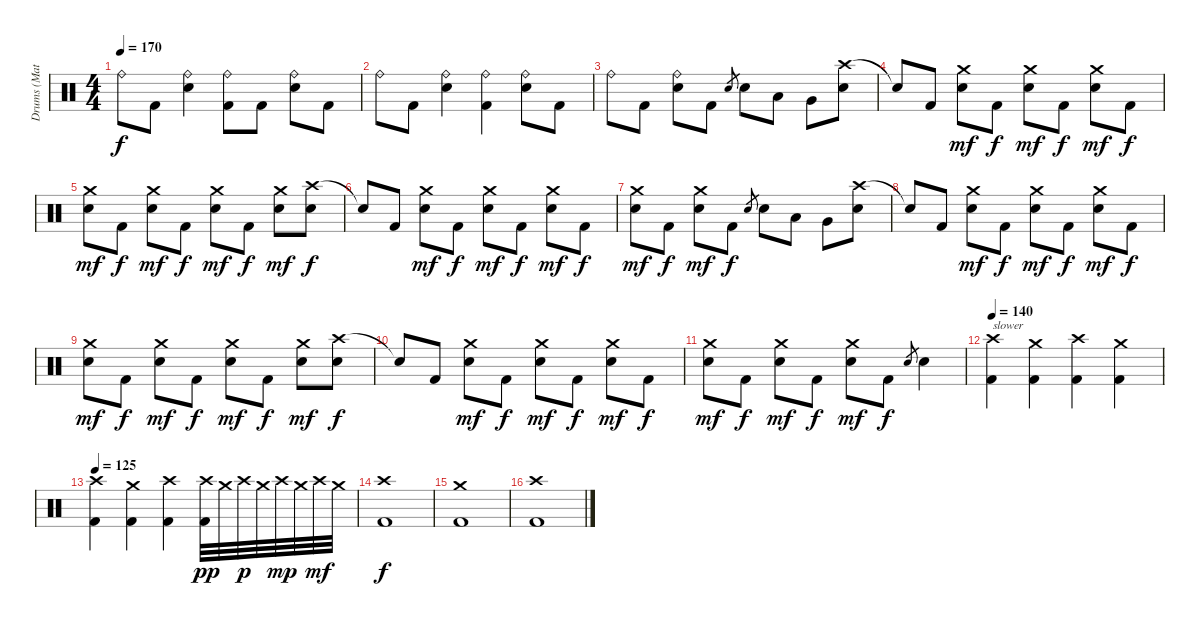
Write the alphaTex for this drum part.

\track ("Drums (Matt)" "Drums (Mat") {instrument percussion}
\staff {score}
\articulation defaults
\ts (4 4)
\tempo 170
\clef neutral
\ks c "Ride (bell)".8{dy f} "Kick (hit) 2".8
("Ride (bell)" "Snare (hit) 2").4 ("Ride (bell)" "Kick (hit) 2").8 "Kick (hit) 2".8 ("Ride (bell)" "Snare (hit) 2").8 "Kick (hit) 2".8 |
"Ride (bell)".8 "Kick (hit) 2".8 ("Ride (bell)" "Snare (hit) 2").4 ("Ride (bell)" "Kick (hit) 2").4 ("Ride (bell)" "Snare (hit) 2").8 "Kick (hit) 2".8 |
"Ride (bell)".8 "Kick (hit) 2".8 ("Ride (bell)" "Snare (hit) 2").8 "Kick (hit) 2".8 "Snare (hit) 2".8{gr} "Snare (hit) 2".8 "Low Tom (hit)".8 "Very Low Tom (hit)".8 ("Crash high (hit)" "Snare (hit) 2").8 |
"Snare (hit)"{t}.8 "Kick (hit) 2".8 ("Crash medium (hit)" "Snare (hit) 2").8{dy mf} "Kick (hit) 2".8{dy f} ("Crash medium (hit)" "Snare (hit) 2").8{dy mf} "Kick (hit) 2".8{dy f} ("Crash medium (hit)" "Snare (hit) 2").8{dy mf} "Kick (hit) 2".8{dy f} |
("Crash medium (hit)" "Snare (hit) 2").8{dy mf} "Kick (hit) 2".8{dy f} ("Crash medium (hit)" "Snare (hit) 2").8{dy mf} "Kick (hit) 2".8{dy f} ("Crash medium (hit)" "Snare (hit) 2").8{dy mf} "Kick (hit) 2".8{dy f} ("Crash medium (hit)" "Snare (hit) 2").8{dy mf} ("Crash high (hit)" "Snare (hit) 2").8{dy f} |
"Snare (hit)"{t}.8 "Kick (hit) 2".8 ("Crash medium (hit)" "Snare (hit) 2").8{dy mf} "Kick (hit) 2".8{dy f} ("Crash medium (hit)" "Snare (hit) 2").8{dy mf} "Kick (hit) 2".8{dy f} ("Crash medium (hit)" "Snare (hit) 2").8{dy mf} "Kick (hit) 2".8{dy f} |
("Crash medium (hit)" "Snare (hit) 2").8{dy mf} "Kick (hit) 2".8{dy f} ("Crash medium (hit)" "Snare (hit) 2").8{dy mf} "Kick (hit) 2".8{dy f} "Snare (hit) 2".8{gr} "Snare (hit) 2".8 "Low Tom (hit)".8 "Very Low Tom (hit)".8 ("Crash high (hit)" "Snare (hit) 2").8 |
"Snare (hit)"{t}.8 "Kick (hit) 2".8 ("Crash medium (hit)" "Snare (hit) 2").8{dy mf} "Kick (hit) 2".8{dy f} ("Crash medium (hit)" "Snare (hit) 2").8{dy mf} "Kick (hit) 2".8{dy f} ("Crash medium (hit)" "Snare (hit) 2").8{dy mf} "Kick (hit) 2".8{dy f} |
("Crash medium (hit)" "Snare (hit) 2").8{dy mf} "Kick (hit) 2".8{dy f} ("Crash medium (hit)" "Snare (hit) 2").8{dy mf} "Kick (hit) 2".8{dy f} ("Crash medium (hit)" "Snare (hit) 2").8{dy mf} "Kick (hit) 2".8{dy f} ("Crash medium (hit)" "Snare (hit) 2").8{dy mf} ("Crash high (hit)" "Snare (hit) 2").8{dy f} |
"Snare (hit)"{t}.8 "Kick (hit) 2".8 ("Crash medium (hit)" "Snare (hit) 2").8{dy mf} "Kick (hit) 2".8{dy f} ("Crash medium (hit)" "Snare (hit) 2").8{dy mf} "Kick (hit) 2".8{dy f} ("Crash medium (hit)" "Snare (hit) 2").8{dy mf} "Kick (hit) 2".8{dy f} |
("Crash medium (hit)" "Snare (hit) 2").8{dy mf} "Kick (hit) 2".8{dy f} ("Crash medium (hit)" "Snare (hit) 2").8{dy mf} "Kick (hit) 2".8{dy f} ("Crash medium (hit)" "Snare (hit) 2").8{dy mf} "Kick (hit) 2".8{dy f} "Snare (hit) 2".8{gr} "Snare (hit) 2".4 |
\tempo 140
("Crash high (hit)" "Kick (hit) 2").4{txt "slower"} ("Crash medium (hit)" "Kick (hit) 2").4 ("Crash high (hit)" "Kick (hit) 2").4 ("Crash medium (hit)" "Kick (hit) 2").4 |
\tempo 125
("Crash high (hit)" "Kick (hit) 2").4 ("Crash medium (hit)" "Kick (hit) 2").4 ("Crash high (hit)" "Kick (hit) 2").4 ("Crash high (hit)" "Kick (hit) 2").32{dy pp} "Crash medium (hit)".32 "Crash high (hit)".32{dy p} "Crash medium (hit)".32 "Crash high (hit)".32{dy mp} "Crash medium (hit)".32 "Crash high (hit)".32{dy mf} "Crash medium (hit)".32 |
("Crash high (hit)" "Kick (hit) 2").1{dy f} |
("Crash medium (hit)" "Kick (hit) 2").1 |
("Crash high (hit)" "Kick (hit) 2").1
